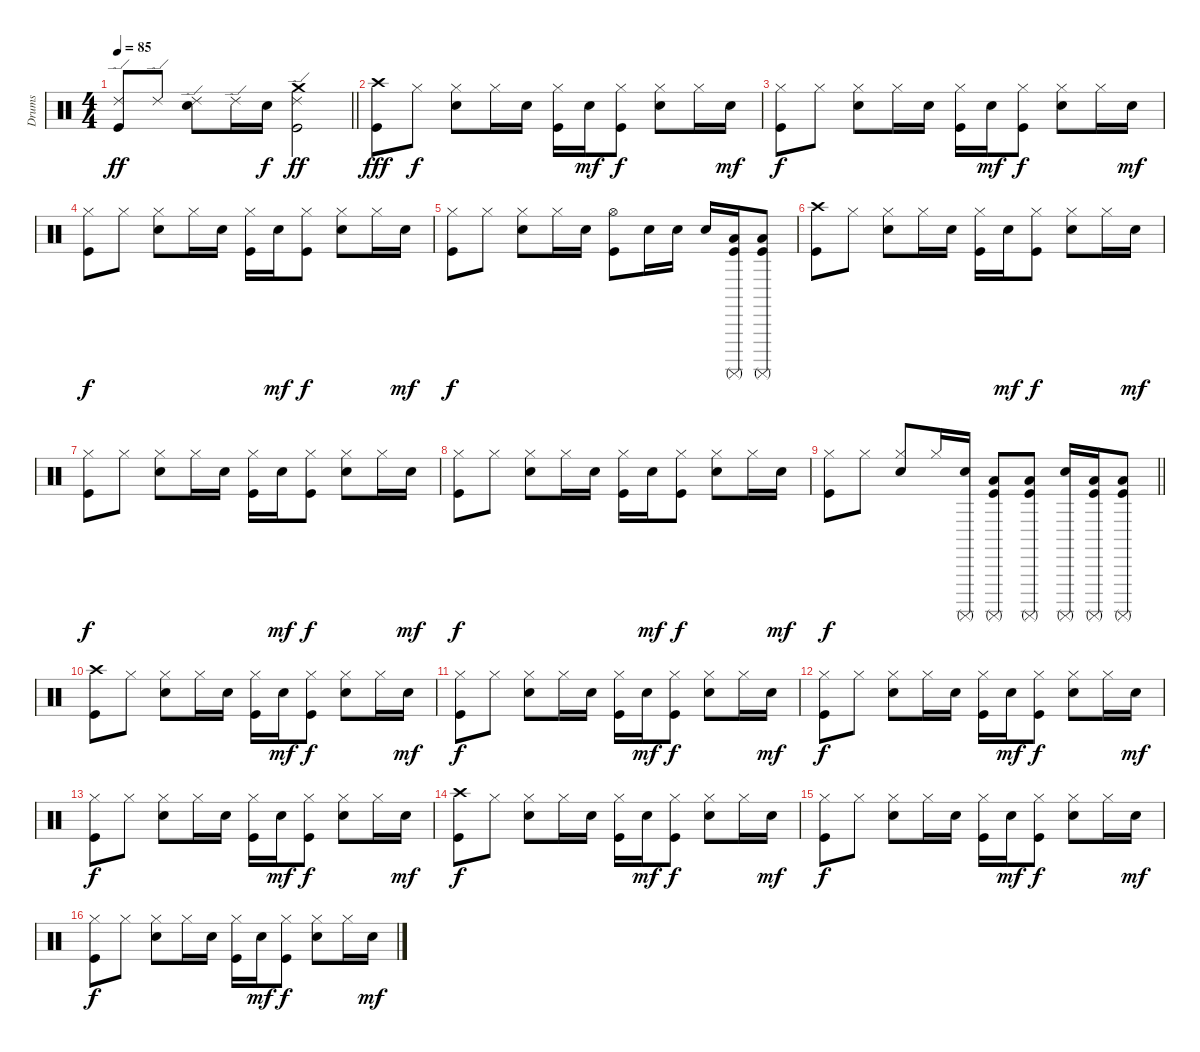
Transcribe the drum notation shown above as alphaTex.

\track ("Drums" "Drums") {instrument percussion}
\staff {score}
\articulation defaults
\ts (4 4)
\tempo 85
\clef neutral
\barLineRight lightlight
\ks c
("Ride (edge) 2" "Kick (hit)").8{dy ff} "Ride (edge) 2".8 ("Ride (edge) 2" "Snare (hit) 2").8 "Ride (edge) 2".16 "Snare (hit) 2".16{dy f} ("Ride (edge) 2" "Crash medium (hit)" "Kick (hit)").2{dy ff} |
("Crash high (hit)" "Kick (hit)").8{dy fff} "Hi-Hat (closed)".8{dy f} ("Hi-Hat (closed)" "Snare (hit) 2").8 "Hi-Hat (closed)".16 "Snare (hit) 2".16 ("Hi-Hat (closed)" "Kick (hit)").16 "Snare (hit) 2".16{dy mf} ("Hi-Hat (closed)" "Kick (hit)").8{dy f} ("Hi-Hat (closed)" "Snare (hit) 2").8 "Hi-Hat (closed)".16 "Snare (hit) 2".16{dy mf} |
("Hi-Hat (closed)" "Kick (hit)").8{dy f} "Hi-Hat (closed)".8 ("Hi-Hat (closed)" "Snare (hit) 2").8 "Hi-Hat (closed)".16 "Snare (hit) 2".16 ("Hi-Hat (closed)" "Kick (hit)").16 "Snare (hit) 2".16{dy mf} ("Hi-Hat (closed)" "Kick (hit)").8{dy f} ("Hi-Hat (closed)" "Snare (hit) 2").8 "Hi-Hat (closed)".16 "Snare (hit) 2".16{dy mf} |
("Hi-Hat (closed)" "Kick (hit)").8{dy f} "Hi-Hat (closed)".8 ("Hi-Hat (closed)" "Snare (hit) 2").8 "Hi-Hat (closed)".16 "Snare (hit) 2".16 ("Hi-Hat (closed)" "Kick (hit)").16 "Snare (hit) 2".16{dy mf} ("Hi-Hat (closed)" "Kick (hit)").8{dy f} ("Hi-Hat (closed)" "Snare (hit) 2").8 "Hi-Hat (closed)".16 "Snare (hit) 2".16{dy mf} |
("Hi-Hat (closed)" "Kick (hit)").8{dy f} "Hi-Hat (closed)".8 ("Hi-Hat (closed)" "Snare (hit) 2").8 "Hi-Hat (closed)".16 "Snare (hit) 2".16 ("Hi-Hat (open)" "Kick (hit)").8 "Snare (hit) 2".16 "Snare (hit) 2".16 "Snare (hit) 2".16 ("Surdo (mute)" "Low Floor Tom (hit)" "Kick (hit)").16 ("Surdo (mute)" "Low Floor Tom (hit)" "Kick (hit)").8 |
("Crash high (hit)" "Kick (hit)").8 "Hi-Hat (closed)".8 ("Hi-Hat (closed)" "Snare (hit) 2").8 "Hi-Hat (closed)".16 "Snare (hit) 2".16 ("Hi-Hat (closed)" "Kick (hit)").16 "Snare (hit) 2".16{dy mf} ("Hi-Hat (closed)" "Kick (hit)").8{dy f} ("Hi-Hat (closed)" "Snare (hit) 2").8 "Hi-Hat (closed)".16 "Snare (hit) 2".16{dy mf} |
("Hi-Hat (closed)" "Kick (hit)").8{dy f} "Hi-Hat (closed)".8 ("Hi-Hat (closed)" "Snare (hit) 2").8 "Hi-Hat (closed)".16 "Snare (hit) 2".16 ("Hi-Hat (closed)" "Kick (hit)").16 "Snare (hit) 2".16{dy mf} ("Hi-Hat (closed)" "Kick (hit)").8{dy f} ("Hi-Hat (closed)" "Snare (hit) 2").8 "Hi-Hat (closed)".16 "Snare (hit) 2".16{dy mf} |
("Hi-Hat (closed)" "Kick (hit)").8{dy f} "Hi-Hat (closed)".8 ("Hi-Hat (closed)" "Snare (hit) 2").8 "Hi-Hat (closed)".16 "Snare (hit) 2".16 ("Hi-Hat (closed)" "Kick (hit)").16 "Snare (hit) 2".16{dy mf} ("Hi-Hat (closed)" "Kick (hit)").8{dy f} ("Hi-Hat (closed)" "Snare (hit) 2").8 "Hi-Hat (closed)".16 "Snare (hit) 2".16{dy mf} |
\barLineRight lightlight
("Hi-Hat (closed)" "Kick (hit)").8{dy f} "Hi-Hat (closed)".8 ("Hi-Hat (closed)" "Snare (hit) 2").8 "Hi-Hat (closed)".16 ("Surdo (mute)" "Snare (hit) 2").16 ("Surdo (mute)" "Low Floor Tom (hit)" "Kick (hit)").8 ("Surdo (mute)" "Low Floor Tom (hit)" "Kick (hit)").8 ("Surdo (mute)" "Snare (hit) 2").16 ("Surdo (mute)" "Low Floor Tom (hit)" "Kick (hit)").16 ("Surdo (mute)" "Low Floor Tom (hit)" "Kick (hit)").8 |
("Crash high (hit)" "Kick (hit)").8 "Hi-Hat (closed)".8 ("Hi-Hat (closed)" "Snare (hit) 2").8 "Hi-Hat (closed)".16 "Snare (hit) 2".16 ("Hi-Hat (closed)" "Kick (hit)").16 "Snare (hit) 2".16{dy mf} ("Hi-Hat (closed)" "Kick (hit)").8{dy f} ("Hi-Hat (closed)" "Snare (hit) 2").8 "Hi-Hat (closed)".16 "Snare (hit) 2".16{dy mf} |
("Hi-Hat (closed)" "Kick (hit)").8{dy f} "Hi-Hat (closed)".8 ("Hi-Hat (closed)" "Snare (hit) 2").8 "Hi-Hat (closed)".16 "Snare (hit) 2".16 ("Hi-Hat (closed)" "Kick (hit)").16 "Snare (hit) 2".16{dy mf} ("Hi-Hat (closed)" "Kick (hit)").8{dy f} ("Hi-Hat (closed)" "Snare (hit) 2").8 "Hi-Hat (closed)".16 "Snare (hit) 2".16{dy mf} |
("Hi-Hat (closed)" "Kick (hit)").8{dy f} "Hi-Hat (closed)".8 ("Hi-Hat (closed)" "Snare (hit) 2").8 "Hi-Hat (closed)".16 "Snare (hit) 2".16 ("Hi-Hat (closed)" "Kick (hit)").16 "Snare (hit) 2".16{dy mf} ("Hi-Hat (closed)" "Kick (hit)").8{dy f} ("Hi-Hat (closed)" "Snare (hit) 2").8 "Hi-Hat (closed)".16 "Snare (hit) 2".16{dy mf} |
("Hi-Hat (closed)" "Kick (hit)").8{dy f} "Hi-Hat (closed)".8 ("Hi-Hat (closed)" "Snare (hit) 2").8 "Hi-Hat (closed)".16 "Snare (hit) 2".16 ("Hi-Hat (closed)" "Kick (hit)").16 "Snare (hit) 2".16{dy mf} ("Hi-Hat (closed)" "Kick (hit)").8{dy f} ("Hi-Hat (closed)" "Snare (hit) 2").8 "Hi-Hat (closed)".16 "Snare (hit) 2".16{dy mf} |
("Crash high (hit)" "Kick (hit)").8{dy f} "Hi-Hat (closed)".8 ("Hi-Hat (closed)" "Snare (hit) 2").8 "Hi-Hat (closed)".16 "Snare (hit) 2".16 ("Hi-Hat (closed)" "Kick (hit)").16 "Snare (hit) 2".16{dy mf} ("Hi-Hat (closed)" "Kick (hit)").8{dy f} ("Hi-Hat (closed)" "Snare (hit) 2").8 "Hi-Hat (closed)".16 "Snare (hit) 2".16{dy mf} |
("Hi-Hat (closed)" "Kick (hit)").8{dy f} "Hi-Hat (closed)".8 ("Hi-Hat (closed)" "Snare (hit) 2").8 "Hi-Hat (closed)".16 "Snare (hit) 2".16 ("Hi-Hat (closed)" "Kick (hit)").16 "Snare (hit) 2".16{dy mf} ("Hi-Hat (closed)" "Kick (hit)").8{dy f} ("Hi-Hat (closed)" "Snare (hit) 2").8 "Hi-Hat (closed)".16 "Snare (hit) 2".16{dy mf} |
("Hi-Hat (closed)" "Kick (hit)").8{dy f} "Hi-Hat (closed)".8 ("Hi-Hat (closed)" "Snare (hit) 2").8 "Hi-Hat (closed)".16 "Snare (hit) 2".16 ("Hi-Hat (closed)" "Kick (hit)").16 "Snare (hit) 2".16{dy mf} ("Hi-Hat (closed)" "Kick (hit)").8{dy f} ("Hi-Hat (closed)" "Snare (hit) 2").8 "Hi-Hat (closed)".16 "Snare (hit) 2".16{dy mf}
